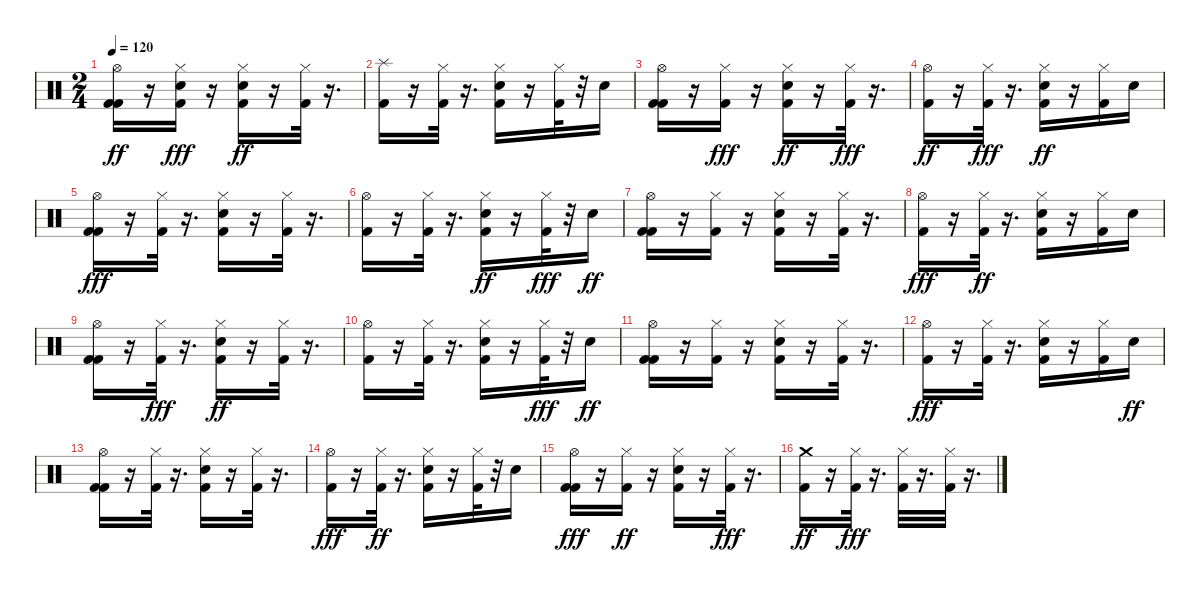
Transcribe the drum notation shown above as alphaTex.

\track "" {instrument percussion}
\staff {score}
\articulation defaults
\ts (2 4)
\tempo 120
\clef neutral
\ks c
("Kick (hit) 2" "Hi-Hat (open)" "Kick (hit) 2").16{dy ff} r.16 ("Snare (hit) 2" "Kick (hit) 2" "Hi-Hat (closed)").16{dy fff} r.16 ("Kick (hit) 2" "Hi-Hat (closed)" "Snare (hit) 2").16{dy ff} r.16 ("Hi-Hat (closed)" "Kick (hit) 2").32 r.16{d} |
("Splash (hit)" "Kick (hit) 2").16 r.16 ("Hi-Hat (closed)" "Kick (hit) 2").32 r.16{d} ("Hi-Hat (closed)" "Snare (hit) 2" "Kick (hit) 2").16 r.16 ("Hi-Hat (closed)" "Kick (hit) 2").32 r.32 "Snare (hit) 2".16 |
("Kick (hit) 2" "Hi-Hat (open)" "Kick (hit) 2").16 r.16 ("Kick (hit) 2" "Hi-Hat (closed)").16{dy fff} r.16 ("Kick (hit) 2" "Hi-Hat (closed)" "Snare (hit) 2").16{dy ff} r.16 ("Kick (hit) 2" "Hi-Hat (closed)").32{dy fff} r.16{d} |
("Hi-Hat (open)" "Kick (hit) 2").16{dy ff} r.16 ("Kick (hit) 2" "Hi-Hat (closed)").32{dy fff} r.16{d} ("Snare (hit) 2" "Hi-Hat (closed)" "Kick (hit) 2").16{dy ff} r.16 ("Hi-Hat (closed)" "Kick (hit) 2").16 "Snare (hit) 2".16 |
("Kick (hit) 2" "Kick (hit) 2" "Hi-Hat (open)").16{dy fff} r.16 ("Kick (hit) 2" "Hi-Hat (closed)").32 r.16{d} ("Kick (hit) 2" "Snare (hit) 2" "Hi-Hat (closed)").16 r.16 ("Kick (hit) 2" "Hi-Hat (closed)").32 r.16{d} |
("Kick (hit) 2" "Hi-Hat (open)").16 r.16 ("Kick (hit) 2" "Hi-Hat (closed)").32 r.16{d} ("Snare (hit) 2" "Hi-Hat (closed)" "Kick (hit) 2").16{dy ff} r.16 ("Kick (hit) 2" "Hi-Hat (closed)").32{dy fff} r.32 "Snare (hit) 2".16{dy ff} |
("Hi-Hat (open)" "Kick (hit) 2" "Kick (hit) 2").16 r.16 ("Hi-Hat (closed)" "Kick (hit) 2").16 r.16 ("Hi-Hat (closed)" "Snare (hit) 2" "Kick (hit) 2").16 r.16 ("Hi-Hat (closed)" "Kick (hit) 2").32 r.16{d} |
("Kick (hit) 2" "Hi-Hat (open)").16{dy fff} r.16 ("Hi-Hat (closed)" "Kick (hit) 2").32{dy ff} r.16{d} ("Hi-Hat (closed)" "Snare (hit) 2" "Kick (hit) 2").16 r.16 ("Hi-Hat (closed)" "Kick (hit) 2").16 "Snare (hit) 2".16 |
("Hi-Hat (open)" "Kick (hit) 2" "Kick (hit) 2").16 r.16 ("Kick (hit) 2" "Hi-Hat (closed)").32{dy fff} r.16{d} ("Hi-Hat (closed)" "Kick (hit) 2" "Snare (hit) 2").16{dy ff} r.16 ("Hi-Hat (closed)" "Kick (hit) 2").32 r.16{d} |
("Hi-Hat (open)" "Kick (hit) 2").16 r.16 ("Hi-Hat (closed)" "Kick (hit) 2").32 r.16{d} ("Hi-Hat (closed)" "Kick (hit) 2" "Snare (hit) 2").16 r.16 ("Kick (hit) 2" "Hi-Hat (closed)").32{dy fff} r.32 "Snare (hit) 2".16{dy ff} |
("Kick (hit) 2" "Hi-Hat (open)" "Kick (hit) 2").16 r.16 ("Hi-Hat (closed)" "Kick (hit) 2").16 r.16 ("Kick (hit) 2" "Hi-Hat (closed)" "Snare (hit) 2").16 r.16 ("Hi-Hat (closed)" "Kick (hit) 2").32 r.16{d} |
("Kick (hit) 2" "Hi-Hat (open)").16{dy fff} r.16 ("Kick (hit) 2" "Hi-Hat (closed)").32 r.16{d} ("Kick (hit) 2" "Snare (hit) 2" "Hi-Hat (closed)").16 r.16 ("Kick (hit) 2" "Hi-Hat (closed)").16 "Snare (hit) 2".16{dy ff} |
("Kick (hit) 2" "Hi-Hat (open)" "Kick (hit) 2").16 r.16 ("Hi-Hat (closed)" "Kick (hit) 2").32 r.16{d} ("Snare (hit) 2" "Hi-Hat (closed)" "Kick (hit) 2").16 r.16 ("Hi-Hat (closed)" "Kick (hit) 2").32 r.16{d} |
("Kick (hit) 2" "Hi-Hat (open)").16{dy fff} r.16 ("Hi-Hat (closed)" "Kick (hit) 2").32{dy ff} r.16{d} ("Kick (hit) 2" "Hi-Hat (closed)" "Snare (hit) 2").16 r.16 ("Hi-Hat (closed)" "Kick (hit) 2").32 r.32 "Snare (hit) 2".16 |
("Kick (hit) 2" "Kick (hit) 2" "Hi-Hat (open)").16{dy fff} r.16 ("Hi-Hat (closed)" "Kick (hit) 2").16{dy ff} r.16 ("Kick (hit) 2" "Hi-Hat (closed)" "Snare (hit) 2").16 r.16 ("Kick (hit) 2" "Hi-Hat (closed)").32{dy fff} r.16{d} |
("Kick (hit) 2" "Crash medium (hit)").16{dy ff} r.16 ("Kick (hit) 2" "Hi-Hat (closed)").32{dy fff} r.16{d} ("Kick (hit) 2" "Hi-Hat (closed)").32 r.16{d} ("Kick (hit) 2" "Hi-Hat (closed)").32 r.16{d}
